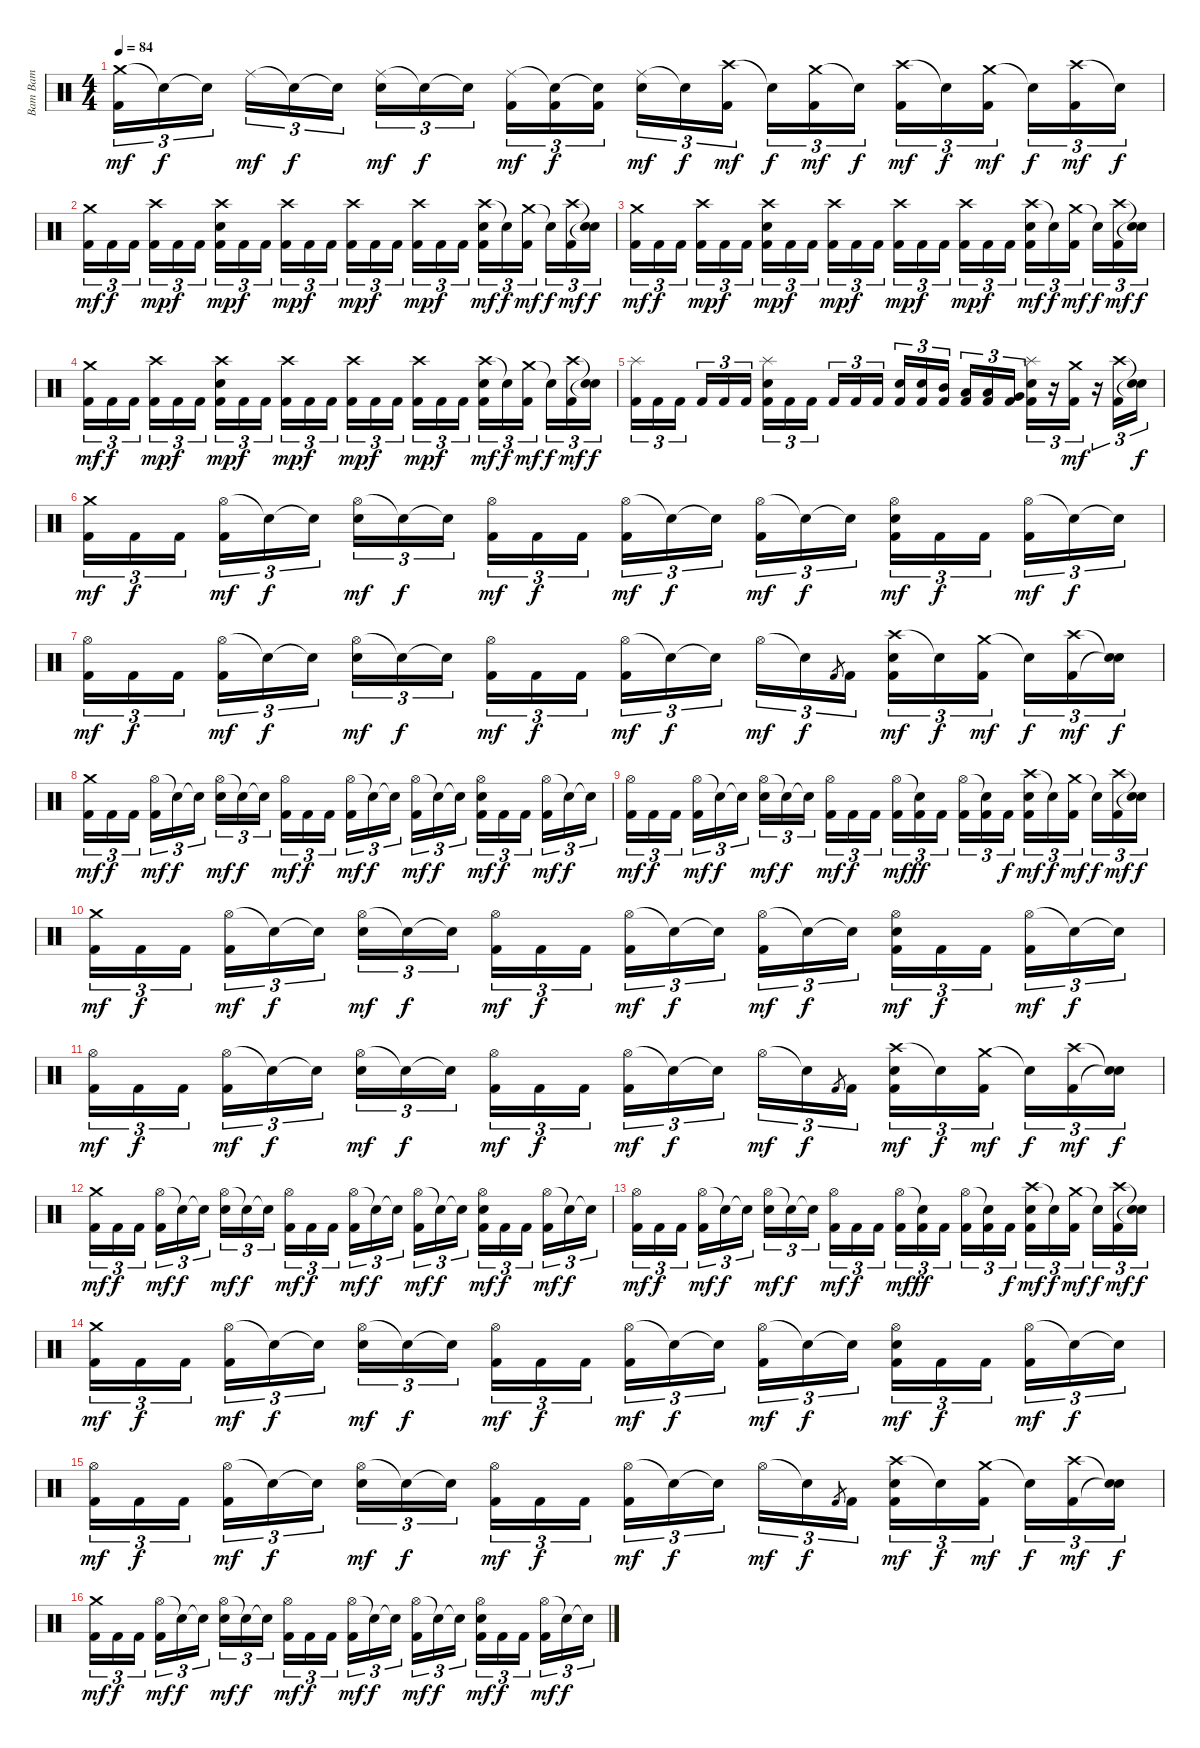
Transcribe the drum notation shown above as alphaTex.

\track ("Bam Bam" "Bam Bam") {instrument percussion}
\staff {score}
\articulation defaults
\ts (4 4)
\tempo 84
\clef neutral
\ks c
("Crash medium (hit)" "Kick (hit) 2").16{tu (3 2) dy mf} "Snare (hit)"{t}.16{tu (3 2) dy f} "Snare (hit)"{t}.16{tu (3 2) beam splitsecondary} "Ride (middle)".16{tu (3 2) dy mf} "Snare (hit)"{t}.16{tu (3 2) dy f} "Snare (hit)"{t}.16{tu (3 2)} ("Ride (middle)" "Electric Snare (hit)").16{tu (3 2) dy mf} "Snare (hit)"{t}.16{tu (3 2) dy f} "Snare (hit)"{t}.16{tu (3 2) beam splitsecondary} ("Ride (middle)" "Kick (hit) 2").16{tu (3 2) dy mf} ("Snare (hit)"{t} "Kick (hit) 2").16{tu (3 2) dy f} ("Snare (hit)"{t} "Kick (hit) 2").16{tu (3 2)} ("Ride (middle)" "Electric Snare (hit)").16{tu (3 2) dy mf} "Snare (hit)"{t}.16{tu (3 2) dy f} ("Crash high (hit)" "Kick (hit) 2").16{tu (3 2) dy mf beam splitsecondary} "Snare (hit)"{t}.16{tu (3 2) dy f} ("Crash medium (hit)" "Kick (hit) 2").16{tu (3 2) dy mf} "Snare (hit)"{t}.16{tu (3 2) dy f} ("Crash high (hit)" "Kick (hit) 2").16{tu (3 2) dy mf} "Snare (hit)"{t}.16{tu (3 2) dy f} ("Crash medium (hit)" "Kick (hit) 2").16{tu (3 2) dy mf beam splitsecondary} "Snare (hit)"{t}.16{tu (3 2) dy f} ("Crash high (hit)" "Kick (hit) 2").16{tu (3 2) dy mf} "Snare (hit)"{t}.16{tu (3 2) dy f} |
("Crash medium (hit)" "Kick (hit) 2").16{tu (3 2) dy mf} "Kick (hit) 2".16{tu (3 2) dy f} "Kick (hit) 2".16{tu (3 2) beam splitsecondary} ("Crash high (hit)" "Kick (hit) 2").16{tu (3 2) dy mp} "Kick (hit) 2".16{tu (3 2) dy f} "Kick (hit) 2".16{tu (3 2)} ("Crash high (hit)" "Electric Snare (hit)" "Kick (hit) 2").16{tu (3 2) dy mp} "Kick (hit) 2".16{tu (3 2) dy f} "Kick (hit) 2".16{tu (3 2) beam splitsecondary} ("Crash high (hit)" "Kick (hit) 2").16{tu (3 2) dy mp} "Kick (hit) 2".16{tu (3 2) dy f} "Kick (hit) 2".16{tu (3 2)} ("Crash high (hit)" "Kick (hit) 2").16{tu (3 2) dy mp} "Kick (hit) 2".16{tu (3 2) dy f} "Kick (hit) 2".16{tu (3 2) beam splitsecondary} ("Crash high (hit)" "Kick (hit) 2").16{tu (3 2) dy mp} "Kick (hit) 2".16{tu (3 2) dy f} "Kick (hit) 2".16{tu (3 2)} ("Crash high (hit)" "Electric Snare (hit)" "Kick (hit) 2").16{tu (3 2) dy mf} "Snare (hit)"{t}.16{tu (3 2) dy f} ("Crash medium (hit)" "Kick (hit) 2").16{tu (3 2) dy mf beam splitsecondary} "Snare (hit)"{t}.16{tu (3 2) dy f} ("Crash high (hit)" "Kick (hit) 2").16{tu (3 2) dy mf} ("Snare (hit)"{t} "Snare (hit)"{t}).16{tu (3 2) dy f} |
("Crash medium (hit)" "Kick (hit) 2").16{tu (3 2) dy mf} "Kick (hit) 2".16{tu (3 2) dy f} "Kick (hit) 2".16{tu (3 2) beam splitsecondary} ("Crash high (hit)" "Kick (hit) 2").16{tu (3 2) dy mp} "Kick (hit) 2".16{tu (3 2) dy f} "Kick (hit) 2".16{tu (3 2)} ("Crash high (hit)" "Electric Snare (hit)" "Kick (hit) 2").16{tu (3 2) dy mp} "Kick (hit) 2".16{tu (3 2) dy f} "Kick (hit) 2".16{tu (3 2) beam splitsecondary} ("Crash high (hit)" "Kick (hit) 2").16{tu (3 2) dy mp} "Kick (hit) 2".16{tu (3 2) dy f} "Kick (hit) 2".16{tu (3 2)} ("Crash high (hit)" "Kick (hit) 2").16{tu (3 2) dy mp} "Kick (hit) 2".16{tu (3 2) dy f} "Kick (hit) 2".16{tu (3 2) beam splitsecondary} ("Crash high (hit)" "Kick (hit) 2").16{tu (3 2) dy mp} "Kick (hit) 2".16{tu (3 2) dy f} "Kick (hit) 2".16{tu (3 2)} ("Crash high (hit)" "Electric Snare (hit)" "Kick (hit) 2").16{tu (3 2) dy mf} "Snare (hit)"{t}.16{tu (3 2) dy f} ("Crash medium (hit)" "Kick (hit) 2").16{tu (3 2) dy mf beam splitsecondary} "Snare (hit)"{t}.16{tu (3 2) dy f} ("Crash high (hit)" "Kick (hit) 2").16{tu (3 2) dy mf} ("Snare (hit)"{t} "Snare (hit)"{t}).16{tu (3 2) dy f} |
("Crash medium (hit)" "Kick (hit) 2").16{tu (3 2) dy mf} "Kick (hit) 2".16{tu (3 2) dy f} "Kick (hit) 2".16{tu (3 2) beam splitsecondary} ("Crash high (hit)" "Kick (hit) 2").16{tu (3 2) dy mp} "Kick (hit) 2".16{tu (3 2) dy f} "Kick (hit) 2".16{tu (3 2)} ("Crash high (hit)" "Electric Snare (hit)" "Kick (hit) 2").16{tu (3 2) dy mp} "Kick (hit) 2".16{tu (3 2) dy f} "Kick (hit) 2".16{tu (3 2) beam splitsecondary} ("Crash high (hit)" "Kick (hit) 2").16{tu (3 2) dy mp} "Kick (hit) 2".16{tu (3 2) dy f} "Kick (hit) 2".16{tu (3 2)} ("Crash high (hit)" "Kick (hit) 2").16{tu (3 2) dy mp} "Kick (hit) 2".16{tu (3 2) dy f} "Kick (hit) 2".16{tu (3 2) beam splitsecondary} ("Crash high (hit)" "Kick (hit) 2").16{tu (3 2) dy mp} "Kick (hit) 2".16{tu (3 2) dy f} "Kick (hit) 2".16{tu (3 2)} ("Crash high (hit)" "Electric Snare (hit)" "Kick (hit) 2").16{tu (3 2) dy mf} "Snare (hit)"{t}.16{tu (3 2) dy f} ("Crash medium (hit)" "Kick (hit) 2").16{tu (3 2) dy mf beam splitsecondary} "Snare (hit)"{t}.16{tu (3 2) dy f} ("Crash high (hit)" "Kick (hit) 2").16{tu (3 2) dy mf} ("Snare (hit)"{t} "Snare (hit)"{t}).16{tu (3 2) dy f} |
("Splash (hit)" "Kick (hit) 2").16{tu (3 2)} "Kick (hit) 2".16{tu (3 2)} "Kick (hit) 2".16{tu (3 2) beam splitsecondary} "Kick (hit) 2".16{tu (3 2)} "Kick (hit) 2".16{tu (3 2)} "Kick (hit) 2".16{tu (3 2)} ("Splash (hit)" "Electric Snare (hit)" "Kick (hit) 2").16{tu (3 2)} "Kick (hit) 2".16{tu (3 2)} "Kick (hit) 2".16{tu (3 2) beam splitsecondary} "Kick (hit) 2".16{tu (3 2)} "Kick (hit) 2".16{tu (3 2)} "Kick (hit) 2".16{tu (3 2)} ("Electric Snare (hit)" "Kick (hit) 2").16{tu (3 2)} ("Electric Snare (hit)" "Kick (hit) 2").16{tu (3 2)} ("Mid Tom (hit)" "Kick (hit) 2").16{tu (3 2) beam splitsecondary} ("Low Tom (hit)" "Kick (hit) 2").16{tu (3 2)} ("Low Tom (hit)" "Kick (hit) 2").16{tu (3 2)} ("Very Low Tom (hit)" "Kick (hit) 2").16{tu (3 2)} ("Splash (hit)" "Electric Snare (hit)" "Kick (hit) 2").16{tu (3 2)} r.16{tu (3 2)} ("Crash medium (hit)" "Kick (hit) 2").16{tu (3 2) dy mf} r.16{tu (3 2)} ("Crash high (hit)" "Kick (hit) 2").16{tu (3 2)} ("Snare (hit)"{t} "Snare (hit)"{t}).16{tu (3 2) dy f} |
("Crash medium (hit)" "Kick (hit) 2").16{tu (3 2) dy mf} "Kick (hit) 2".16{tu (3 2) dy f} "Kick (hit) 2".16{tu (3 2) beam splitsecondary} ("Hi-Hat (open)" "Kick (hit) 2").16{tu (3 2) dy mf} "Snare (hit)"{t}.16{tu (3 2) dy f} "Snare (hit)"{t}.16{tu (3 2)} ("Hi-Hat (open)" "Electric Snare (hit)").16{tu (3 2) dy mf} "Snare (hit)"{t}.16{tu (3 2) dy f} "Snare (hit)"{t}.16{tu (3 2) beam splitsecondary} ("Hi-Hat (open)" "Kick (hit) 2").16{tu (3 2) dy mf} "Kick (hit) 2".16{tu (3 2) dy f} "Kick (hit) 2".16{tu (3 2)} ("Hi-Hat (open)" "Kick (hit) 2").16{tu (3 2) dy mf} "Snare (hit)"{t}.16{tu (3 2) dy f} "Snare (hit)"{t}.16{tu (3 2) beam splitsecondary} ("Hi-Hat (open)" "Kick (hit) 2").16{tu (3 2) dy mf} "Snare (hit)"{t}.16{tu (3 2) dy f} "Snare (hit)"{t}.16{tu (3 2)} ("Hi-Hat (open)" "Electric Snare (hit)" "Kick (hit) 2").16{tu (3 2) dy mf} "Kick (hit) 2".16{tu (3 2) dy f} "Kick (hit) 2".16{tu (3 2) beam splitsecondary} ("Hi-Hat (open)" "Kick (hit) 2").16{tu (3 2) dy mf} "Snare (hit)"{t}.16{tu (3 2) dy f} "Snare (hit)"{t}.16{tu (3 2)} |
("Hi-Hat (open)" "Kick (hit) 2").16{tu (3 2) dy mf} "Kick (hit) 2".16{tu (3 2) dy f} "Kick (hit) 2".16{tu (3 2) beam splitsecondary} ("Hi-Hat (open)" "Kick (hit) 2").16{tu (3 2) dy mf} "Snare (hit)"{t}.16{tu (3 2) dy f} "Snare (hit)"{t}.16{tu (3 2)} ("Hi-Hat (open)" "Electric Snare (hit)").16{tu (3 2) dy mf} "Snare (hit)"{t}.16{tu (3 2) dy f} "Snare (hit)"{t}.16{tu (3 2) beam splitsecondary} ("Hi-Hat (open)" "Kick (hit) 2").16{tu (3 2) dy mf} "Kick (hit) 2".16{tu (3 2) dy f} "Kick (hit) 2".16{tu (3 2)} ("Hi-Hat (open)" "Kick (hit) 2").16{tu (3 2) dy mf} "Snare (hit)"{t}.16{tu (3 2) dy f} "Snare (hit)"{t}.16{tu (3 2) beam splitsecondary} "Hi-Hat (open)".16{tu (3 2) dy mf} "Snare (hit)"{t}.16{tu (3 2) dy f} "Kick (hit) 2".8{gr} "Kick (hit) 2".16{tu (3 2)} ("Crash high (hit)" "Electric Snare (hit)" "Kick (hit) 2").16{tu (3 2) dy mf} "Snare (hit)"{t}.16{tu (3 2) dy f} ("Crash medium (hit)" "Kick (hit) 2").16{tu (3 2) dy mf beam splitsecondary} "Snare (hit)"{t}.16{tu (3 2) dy f} ("Crash high (hit)" "Kick (hit) 2").16{tu (3 2) dy mf} ("Snare (hit)"{t} "Snare (hit)"{t}).16{tu (3 2) dy f} |
("Crash medium (hit)" "Kick (hit) 2").16{tu (3 2) dy mf} "Kick (hit) 2".16{tu (3 2) dy f} "Kick (hit) 2".16{tu (3 2) beam splitsecondary} ("Hi-Hat (open)" "Kick (hit) 2").16{tu (3 2) dy mf} "Snare (hit)"{t}.16{tu (3 2) dy f} "Snare (hit)"{t}.16{tu (3 2)} ("Hi-Hat (open)" "Electric Snare (hit)").16{tu (3 2) dy mf} "Snare (hit)"{t}.16{tu (3 2) dy f} "Snare (hit)"{t}.16{tu (3 2) beam splitsecondary} ("Hi-Hat (open)" "Kick (hit) 2").16{tu (3 2) dy mf} "Kick (hit) 2".16{tu (3 2) dy f} "Kick (hit) 2".16{tu (3 2)} ("Hi-Hat (open)" "Kick (hit) 2").16{tu (3 2) dy mf} "Snare (hit)"{t}.16{tu (3 2) dy f} "Snare (hit)"{t}.16{tu (3 2) beam splitsecondary} ("Hi-Hat (open)" "Kick (hit) 2").16{tu (3 2) dy mf} "Snare (hit)"{t}.16{tu (3 2) dy f} "Snare (hit)"{t}.16{tu (3 2)} ("Hi-Hat (open)" "Electric Snare (hit)" "Kick (hit) 2").16{tu (3 2) dy mf} "Kick (hit) 2".16{tu (3 2) dy f} "Kick (hit) 2".16{tu (3 2) beam splitsecondary} ("Hi-Hat (open)" "Kick (hit) 2").16{tu (3 2) dy mf} "Snare (hit)"{t}.16{tu (3 2) dy f} "Snare (hit)"{t}.16{tu (3 2)} |
("Hi-Hat (open)" "Kick (hit) 2").16{tu (3 2) dy mf} "Kick (hit) 2".16{tu (3 2) dy f} "Kick (hit) 2".16{tu (3 2) beam splitsecondary} ("Hi-Hat (open)" "Kick (hit) 2").16{tu (3 2) dy mf} "Snare (hit)"{t}.16{tu (3 2) dy f} "Snare (hit)"{t}.16{tu (3 2)} ("Hi-Hat (open)" "Electric Snare (hit)").16{tu (3 2) dy mf} "Snare (hit)"{t}.16{tu (3 2) dy f} "Snare (hit)"{t}.16{tu (3 2) beam splitsecondary} ("Hi-Hat (open)" "Kick (hit) 2").16{tu (3 2) dy mf} "Kick (hit) 2".16{tu (3 2) dy f} "Kick (hit) 2".16{tu (3 2)} ("Hi-Hat (open)" "Kick (hit) 2").16{tu (3 2) dy mf} ("Snare (hit)"{t} "Kick (hit) 2").16{tu (3 2) dy ff} "Kick (hit) 2".16{tu (3 2) beam splitsecondary} ("Hi-Hat (open)" "Kick (hit) 2").16{tu (3 2)} ("Snare (hit)"{t} "Kick (hit) 2").16{tu (3 2)} "Kick (hit) 2".16{tu (3 2) dy f} ("Crash high (hit)" "Electric Snare (hit)" "Kick (hit) 2").16{tu (3 2) dy mf} "Snare (hit)"{t}.16{tu (3 2) dy f} ("Crash medium (hit)" "Kick (hit) 2").16{tu (3 2) dy mf beam splitsecondary} "Snare (hit)"{t}.16{tu (3 2) dy f} ("Crash high (hit)" "Kick (hit) 2").16{tu (3 2) dy mf} ("Snare (hit)"{t} "Snare (hit)"{t}).16{tu (3 2) dy f} |
("Crash medium (hit)" "Kick (hit) 2").16{tu (3 2) dy mf} "Kick (hit) 2".16{tu (3 2) dy f} "Kick (hit) 2".16{tu (3 2) beam splitsecondary} ("Hi-Hat (open)" "Kick (hit) 2").16{tu (3 2) dy mf} "Snare (hit)"{t}.16{tu (3 2) dy f} "Snare (hit)"{t}.16{tu (3 2)} ("Hi-Hat (open)" "Electric Snare (hit)").16{tu (3 2) dy mf} "Snare (hit)"{t}.16{tu (3 2) dy f} "Snare (hit)"{t}.16{tu (3 2) beam splitsecondary} ("Hi-Hat (open)" "Kick (hit) 2").16{tu (3 2) dy mf} "Kick (hit) 2".16{tu (3 2) dy f} "Kick (hit) 2".16{tu (3 2)} ("Hi-Hat (open)" "Kick (hit) 2").16{tu (3 2) dy mf} "Snare (hit)"{t}.16{tu (3 2) dy f} "Snare (hit)"{t}.16{tu (3 2) beam splitsecondary} ("Hi-Hat (open)" "Kick (hit) 2").16{tu (3 2) dy mf} "Snare (hit)"{t}.16{tu (3 2) dy f} "Snare (hit)"{t}.16{tu (3 2)} ("Hi-Hat (open)" "Electric Snare (hit)" "Kick (hit) 2").16{tu (3 2) dy mf} "Kick (hit) 2".16{tu (3 2) dy f} "Kick (hit) 2".16{tu (3 2) beam splitsecondary} ("Hi-Hat (open)" "Kick (hit) 2").16{tu (3 2) dy mf} "Snare (hit)"{t}.16{tu (3 2) dy f} "Snare (hit)"{t}.16{tu (3 2)} |
("Hi-Hat (open)" "Kick (hit) 2").16{tu (3 2) dy mf} "Kick (hit) 2".16{tu (3 2) dy f} "Kick (hit) 2".16{tu (3 2) beam splitsecondary} ("Hi-Hat (open)" "Kick (hit) 2").16{tu (3 2) dy mf} "Snare (hit)"{t}.16{tu (3 2) dy f} "Snare (hit)"{t}.16{tu (3 2)} ("Hi-Hat (open)" "Electric Snare (hit)").16{tu (3 2) dy mf} "Snare (hit)"{t}.16{tu (3 2) dy f} "Snare (hit)"{t}.16{tu (3 2) beam splitsecondary} ("Hi-Hat (open)" "Kick (hit) 2").16{tu (3 2) dy mf} "Kick (hit) 2".16{tu (3 2) dy f} "Kick (hit) 2".16{tu (3 2)} ("Hi-Hat (open)" "Kick (hit) 2").16{tu (3 2) dy mf} "Snare (hit)"{t}.16{tu (3 2) dy f} "Snare (hit)"{t}.16{tu (3 2) beam splitsecondary} "Hi-Hat (open)".16{tu (3 2) dy mf} "Snare (hit)"{t}.16{tu (3 2) dy f} "Kick (hit) 2".8{gr} "Kick (hit) 2".16{tu (3 2)} ("Crash high (hit)" "Electric Snare (hit)" "Kick (hit) 2").16{tu (3 2) dy mf} "Snare (hit)"{t}.16{tu (3 2) dy f} ("Crash medium (hit)" "Kick (hit) 2").16{tu (3 2) dy mf beam splitsecondary} "Snare (hit)"{t}.16{tu (3 2) dy f} ("Crash high (hit)" "Kick (hit) 2").16{tu (3 2) dy mf} ("Snare (hit)"{t} "Snare (hit)"{t}).16{tu (3 2) dy f} |
("Crash medium (hit)" "Kick (hit) 2").16{tu (3 2) dy mf} "Kick (hit) 2".16{tu (3 2) dy f} "Kick (hit) 2".16{tu (3 2) beam splitsecondary} ("Hi-Hat (open)" "Kick (hit) 2").16{tu (3 2) dy mf} "Snare (hit)"{t}.16{tu (3 2) dy f} "Snare (hit)"{t}.16{tu (3 2)} ("Hi-Hat (open)" "Electric Snare (hit)").16{tu (3 2) dy mf} "Snare (hit)"{t}.16{tu (3 2) dy f} "Snare (hit)"{t}.16{tu (3 2) beam splitsecondary} ("Hi-Hat (open)" "Kick (hit) 2").16{tu (3 2) dy mf} "Kick (hit) 2".16{tu (3 2) dy f} "Kick (hit) 2".16{tu (3 2)} ("Hi-Hat (open)" "Kick (hit) 2").16{tu (3 2) dy mf} "Snare (hit)"{t}.16{tu (3 2) dy f} "Snare (hit)"{t}.16{tu (3 2) beam splitsecondary} ("Hi-Hat (open)" "Kick (hit) 2").16{tu (3 2) dy mf} "Snare (hit)"{t}.16{tu (3 2) dy f} "Snare (hit)"{t}.16{tu (3 2)} ("Hi-Hat (open)" "Electric Snare (hit)" "Kick (hit) 2").16{tu (3 2) dy mf} "Kick (hit) 2".16{tu (3 2) dy f} "Kick (hit) 2".16{tu (3 2) beam splitsecondary} ("Hi-Hat (open)" "Kick (hit) 2").16{tu (3 2) dy mf} "Snare (hit)"{t}.16{tu (3 2) dy f} "Snare (hit)"{t}.16{tu (3 2)} |
("Hi-Hat (open)" "Kick (hit) 2").16{tu (3 2) dy mf} "Kick (hit) 2".16{tu (3 2) dy f} "Kick (hit) 2".16{tu (3 2) beam splitsecondary} ("Hi-Hat (open)" "Kick (hit) 2").16{tu (3 2) dy mf} "Snare (hit)"{t}.16{tu (3 2) dy f} "Snare (hit)"{t}.16{tu (3 2)} ("Hi-Hat (open)" "Electric Snare (hit)").16{tu (3 2) dy mf} "Snare (hit)"{t}.16{tu (3 2) dy f} "Snare (hit)"{t}.16{tu (3 2) beam splitsecondary} ("Hi-Hat (open)" "Kick (hit) 2").16{tu (3 2) dy mf} "Kick (hit) 2".16{tu (3 2) dy f} "Kick (hit) 2".16{tu (3 2)} ("Hi-Hat (open)" "Kick (hit) 2").16{tu (3 2) dy mf} ("Snare (hit)"{t} "Kick (hit) 2").16{tu (3 2) dy ff} "Kick (hit) 2".16{tu (3 2) beam splitsecondary} ("Hi-Hat (open)" "Kick (hit) 2").16{tu (3 2)} ("Snare (hit)"{t} "Kick (hit) 2").16{tu (3 2)} "Kick (hit) 2".16{tu (3 2) dy f} ("Crash high (hit)" "Electric Snare (hit)" "Kick (hit) 2").16{tu (3 2) dy mf} "Snare (hit)"{t}.16{tu (3 2) dy f} ("Crash medium (hit)" "Kick (hit) 2").16{tu (3 2) dy mf beam splitsecondary} "Snare (hit)"{t}.16{tu (3 2) dy f} ("Crash high (hit)" "Kick (hit) 2").16{tu (3 2) dy mf} ("Snare (hit)"{t} "Snare (hit)"{t}).16{tu (3 2) dy f} |
("Crash medium (hit)" "Kick (hit) 2").16{tu (3 2) dy mf} "Kick (hit) 2".16{tu (3 2) dy f} "Kick (hit) 2".16{tu (3 2) beam splitsecondary} ("Hi-Hat (open)" "Kick (hit) 2").16{tu (3 2) dy mf} "Snare (hit)"{t}.16{tu (3 2) dy f} "Snare (hit)"{t}.16{tu (3 2)} ("Hi-Hat (open)" "Electric Snare (hit)").16{tu (3 2) dy mf} "Snare (hit)"{t}.16{tu (3 2) dy f} "Snare (hit)"{t}.16{tu (3 2) beam splitsecondary} ("Hi-Hat (open)" "Kick (hit) 2").16{tu (3 2) dy mf} "Kick (hit) 2".16{tu (3 2) dy f} "Kick (hit) 2".16{tu (3 2)} ("Hi-Hat (open)" "Kick (hit) 2").16{tu (3 2) dy mf} "Snare (hit)"{t}.16{tu (3 2) dy f} "Snare (hit)"{t}.16{tu (3 2) beam splitsecondary} ("Hi-Hat (open)" "Kick (hit) 2").16{tu (3 2) dy mf} "Snare (hit)"{t}.16{tu (3 2) dy f} "Snare (hit)"{t}.16{tu (3 2)} ("Hi-Hat (open)" "Electric Snare (hit)" "Kick (hit) 2").16{tu (3 2) dy mf} "Kick (hit) 2".16{tu (3 2) dy f} "Kick (hit) 2".16{tu (3 2) beam splitsecondary} ("Hi-Hat (open)" "Kick (hit) 2").16{tu (3 2) dy mf} "Snare (hit)"{t}.16{tu (3 2) dy f} "Snare (hit)"{t}.16{tu (3 2)} |
("Hi-Hat (open)" "Kick (hit) 2").16{tu (3 2) dy mf} "Kick (hit) 2".16{tu (3 2) dy f} "Kick (hit) 2".16{tu (3 2) beam splitsecondary} ("Hi-Hat (open)" "Kick (hit) 2").16{tu (3 2) dy mf} "Snare (hit)"{t}.16{tu (3 2) dy f} "Snare (hit)"{t}.16{tu (3 2)} ("Hi-Hat (open)" "Electric Snare (hit)").16{tu (3 2) dy mf} "Snare (hit)"{t}.16{tu (3 2) dy f} "Snare (hit)"{t}.16{tu (3 2) beam splitsecondary} ("Hi-Hat (open)" "Kick (hit) 2").16{tu (3 2) dy mf} "Kick (hit) 2".16{tu (3 2) dy f} "Kick (hit) 2".16{tu (3 2)} ("Hi-Hat (open)" "Kick (hit) 2").16{tu (3 2) dy mf} "Snare (hit)"{t}.16{tu (3 2) dy f} "Snare (hit)"{t}.16{tu (3 2) beam splitsecondary} "Hi-Hat (open)".16{tu (3 2) dy mf} "Snare (hit)"{t}.16{tu (3 2) dy f} "Kick (hit) 2".8{gr} "Kick (hit) 2".16{tu (3 2)} ("Crash high (hit)" "Electric Snare (hit)" "Kick (hit) 2").16{tu (3 2) dy mf} "Snare (hit)"{t}.16{tu (3 2) dy f} ("Crash medium (hit)" "Kick (hit) 2").16{tu (3 2) dy mf beam splitsecondary} "Snare (hit)"{t}.16{tu (3 2) dy f} ("Crash high (hit)" "Kick (hit) 2").16{tu (3 2) dy mf} ("Snare (hit)"{t} "Snare (hit)"{t}).16{tu (3 2) dy f} |
("Crash medium (hit)" "Kick (hit) 2").16{tu (3 2) dy mf} "Kick (hit) 2".16{tu (3 2) dy f} "Kick (hit) 2".16{tu (3 2) beam splitsecondary} ("Hi-Hat (open)" "Kick (hit) 2").16{tu (3 2) dy mf} "Snare (hit)"{t}.16{tu (3 2) dy f} "Snare (hit)"{t}.16{tu (3 2)} ("Hi-Hat (open)" "Electric Snare (hit)").16{tu (3 2) dy mf} "Snare (hit)"{t}.16{tu (3 2) dy f} "Snare (hit)"{t}.16{tu (3 2) beam splitsecondary} ("Hi-Hat (open)" "Kick (hit) 2").16{tu (3 2) dy mf} "Kick (hit) 2".16{tu (3 2) dy f} "Kick (hit) 2".16{tu (3 2)} ("Hi-Hat (open)" "Kick (hit) 2").16{tu (3 2) dy mf} "Snare (hit)"{t}.16{tu (3 2) dy f} "Snare (hit)"{t}.16{tu (3 2) beam splitsecondary} ("Hi-Hat (open)" "Kick (hit) 2").16{tu (3 2) dy mf} "Snare (hit)"{t}.16{tu (3 2) dy f} "Snare (hit)"{t}.16{tu (3 2)} ("Hi-Hat (open)" "Electric Snare (hit)" "Kick (hit) 2").16{tu (3 2) dy mf} "Kick (hit) 2".16{tu (3 2) dy f} "Kick (hit) 2".16{tu (3 2) beam splitsecondary} ("Hi-Hat (open)" "Kick (hit) 2").16{tu (3 2) dy mf} "Snare (hit)"{t}.16{tu (3 2) dy f} "Snare (hit)"{t}.16{tu (3 2)}
